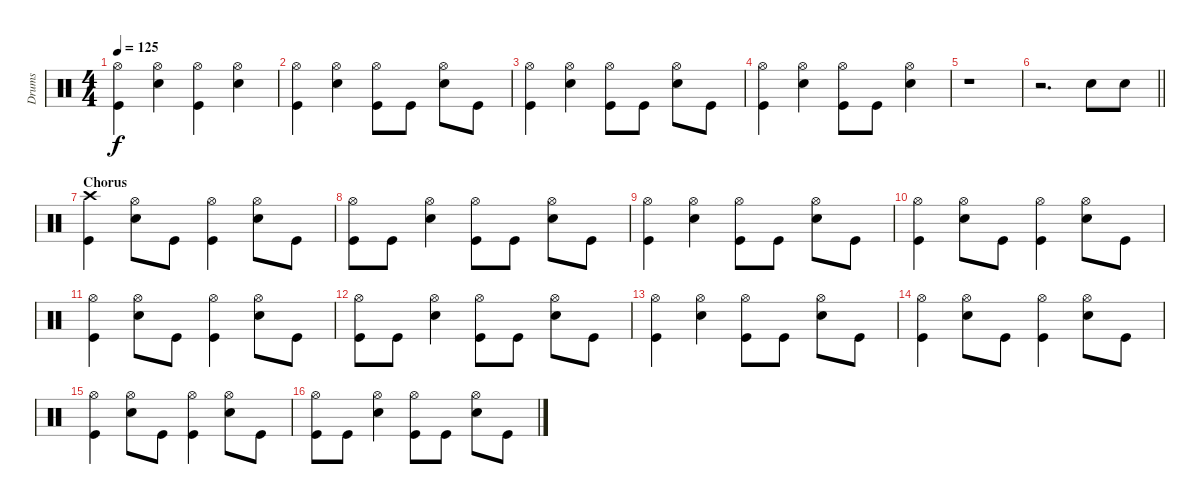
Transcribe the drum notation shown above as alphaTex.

\track ("Drums" "Drums") {instrument percussion}
\staff {score}
\articulation defaults
\ts (4 4)
\tempo 125
\clef neutral
\ks c
("Hi-Hat (open)" "Kick (hit)").4{dy f} ("Hi-Hat (open)" "Electric Snare (hit)").4 ("Hi-Hat (open)" "Kick (hit)").4 ("Hi-Hat (open)" "Electric Snare (hit)").4 |
("Hi-Hat (open)" "Kick (hit)").4 ("Hi-Hat (open)" "Electric Snare (hit)").4 ("Hi-Hat (open)" "Kick (hit)").8 "Kick (hit)".8 ("Hi-Hat (open)" "Electric Snare (hit)").8 "Kick (hit)".8 |
("Hi-Hat (open)" "Kick (hit)").4 ("Hi-Hat (open)" "Electric Snare (hit)").4 ("Hi-Hat (open)" "Kick (hit)").8 "Kick (hit)".8 ("Hi-Hat (open)" "Electric Snare (hit)").8 "Kick (hit)".8 |
("Hi-Hat (open)" "Kick (hit)").4 ("Hi-Hat (open)" "Electric Snare (hit)").4 ("Hi-Hat (open)" "Kick (hit)").8 "Kick (hit)".8 ("Hi-Hat (open)" "Electric Snare (hit)").4 |
r.1 |
\barLineRight lightlight
r.2{d} "Electric Snare (hit)".8 "Electric Snare (hit)".8 |
\section ("" "Chorus")
("Crash high (hit)" "Kick (hit)").4 ("Hi-Hat (open)" "Electric Snare (hit)").8 "Kick (hit)".8 ("Hi-Hat (open)" "Kick (hit)").4 ("Hi-Hat (open)" "Electric Snare (hit)").8 "Kick (hit)".8 |
("Hi-Hat (open)" "Kick (hit)").8 "Kick (hit)".8 ("Hi-Hat (open)" "Electric Snare (hit)").4 ("Hi-Hat (open)" "Kick (hit)").8 "Kick (hit)".8 ("Hi-Hat (open)" "Electric Snare (hit)").8 "Kick (hit)".8 |
("Hi-Hat (open)" "Kick (hit)").4 ("Hi-Hat (open)" "Electric Snare (hit)").4 ("Hi-Hat (open)" "Kick (hit)").8 "Kick (hit)".8 ("Hi-Hat (open)" "Electric Snare (hit)").8 "Kick (hit)".8 |
("Hi-Hat (open)" "Kick (hit)").4 ("Hi-Hat (open)" "Electric Snare (hit)").8 "Kick (hit)".8 ("Hi-Hat (open)" "Kick (hit)").4 ("Hi-Hat (open)" "Electric Snare (hit)").8 "Kick (hit)".8 |
("Hi-Hat (open)" "Kick (hit)").4 ("Hi-Hat (open)" "Electric Snare (hit)").8 "Kick (hit)".8 ("Hi-Hat (open)" "Kick (hit)").4 ("Hi-Hat (open)" "Electric Snare (hit)").8 "Kick (hit)".8 |
("Hi-Hat (open)" "Kick (hit)").8 "Kick (hit)".8 ("Hi-Hat (open)" "Electric Snare (hit)").4 ("Hi-Hat (open)" "Kick (hit)").8 "Kick (hit)".8 ("Hi-Hat (open)" "Electric Snare (hit)").8 "Kick (hit)".8 |
("Hi-Hat (open)" "Kick (hit)").4 ("Hi-Hat (open)" "Electric Snare (hit)").4 ("Hi-Hat (open)" "Kick (hit)").8 "Kick (hit)".8 ("Hi-Hat (open)" "Electric Snare (hit)").8 "Kick (hit)".8 |
("Hi-Hat (open)" "Kick (hit)").4 ("Hi-Hat (open)" "Electric Snare (hit)").8 "Kick (hit)".8 ("Hi-Hat (open)" "Kick (hit)").4 ("Hi-Hat (open)" "Electric Snare (hit)").8 "Kick (hit)".8 |
("Hi-Hat (open)" "Kick (hit)").4 ("Hi-Hat (open)" "Electric Snare (hit)").8 "Kick (hit)".8 ("Hi-Hat (open)" "Kick (hit)").4 ("Hi-Hat (open)" "Electric Snare (hit)").8 "Kick (hit)".8 |
("Hi-Hat (open)" "Kick (hit)").8 "Kick (hit)".8 ("Hi-Hat (open)" "Electric Snare (hit)").4 ("Hi-Hat (open)" "Kick (hit)").8 "Kick (hit)".8 ("Hi-Hat (open)" "Electric Snare (hit)").8 "Kick (hit)".8
